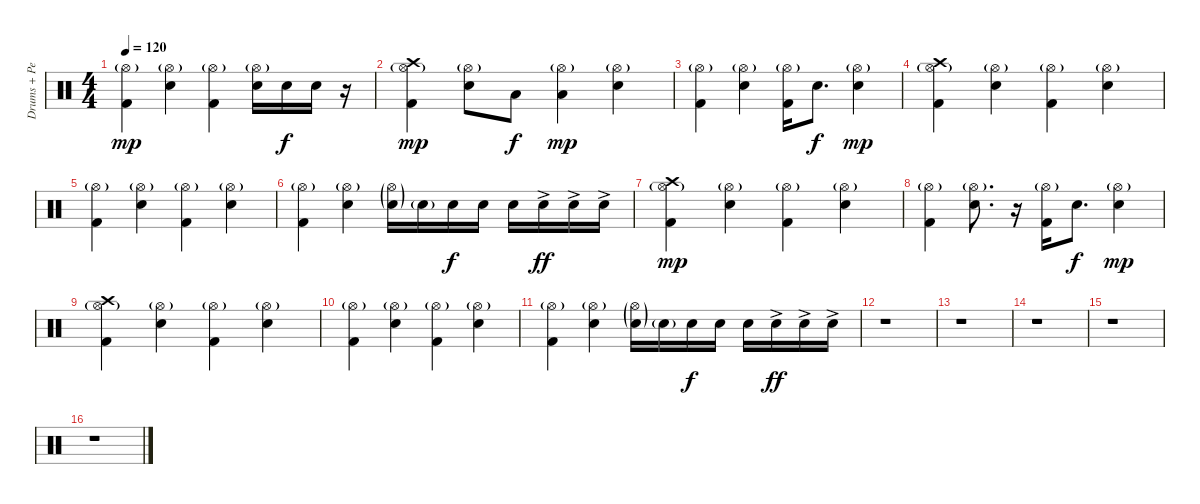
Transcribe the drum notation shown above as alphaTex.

\track ("Drums + Percussion" "Drums + Pe") {instrument percussion}
\staff {score}
\articulation defaults
\ts (4 4)
\tempo 120
\clef neutral
\ks c
("Hi-Hat (open)"{g} "Kick (hit) 2").4{dy mp} ("Hi-Hat (open)"{g} "Electric Snare (hit)").4 ("Hi-Hat (open)"{g} "Kick (hit) 2").4 ("Hi-Hat (open)"{g} "Electric Snare (hit)").16 "Electric Snare (hit)".16{dy f} "Electric Snare (hit)".16 r.16 |
("Hi-Hat (open)"{g} "Crash high (hit)" "Kick (hit) 2").4{dy mp} ("Hi-Hat (open)"{g} "Electric Snare (hit)").8 "Low Tom (hit)".8{dy f} ("Hi-Hat (open)"{g} "Low Tom (hit)").4{dy mp} ("Hi-Hat (open)"{g} "Electric Snare (hit)").4 |
("Hi-Hat (open)"{g} "Kick (hit) 2").4 ("Hi-Hat (open)"{g} "Electric Snare (hit)").4 ("Hi-Hat (open)"{g} "Kick (hit) 2").16 "Electric Snare (hit)".8{d dy f} ("Hi-Hat (open)"{g} "Electric Snare (hit)").4{dy mp} |
("Hi-Hat (open)"{g} "Crash high (hit)" "Kick (hit) 2").4 ("Hi-Hat (open)"{g} "Electric Snare (hit)").4 ("Hi-Hat (open)"{g} "Kick (hit) 2").4 ("Hi-Hat (open)"{g} "Electric Snare (hit)").4 |
("Hi-Hat (open)"{g} "Kick (hit) 2").4 ("Hi-Hat (open)"{g} "Electric Snare (hit)").4 ("Hi-Hat (open)"{g} "Kick (hit) 2").4 ("Hi-Hat (open)"{g} "Electric Snare (hit)").4 |
("Hi-Hat (open)"{g} "Kick (hit) 2").4 ("Hi-Hat (open)"{g} "Electric Snare (hit)").4 ("Hi-Hat (open)"{g} "Electric Snare (hit)"{g}).16 "Electric Snare (hit)"{g}.16 "Electric Snare (hit)".16{dy f} "Electric Snare (hit)".16 "Electric Snare (hit)".16 "Electric Snare (hit)"{ac}.16{dy ff} "Electric Snare (hit)"{ac}.16 "Electric Snare (hit)"{ac}.16 |
("Hi-Hat (open)"{g} "Crash high (hit)" "Kick (hit) 2").4{dy mp} ("Hi-Hat (open)"{g} "Electric Snare (hit)").4 ("Hi-Hat (open)"{g} "Kick (hit) 2").4 ("Hi-Hat (open)"{g} "Electric Snare (hit)").4 |
("Hi-Hat (open)"{g} "Kick (hit) 2").4 ("Hi-Hat (open)"{g} "Electric Snare (hit)").8{d} r.16 ("Hi-Hat (open)"{g} "Kick (hit) 2").16 "Electric Snare (hit)".8{d dy f} ("Hi-Hat (open)"{g} "Electric Snare (hit)").4{dy mp} |
("Hi-Hat (open)"{g} "Crash high (hit)" "Kick (hit) 2").4 ("Hi-Hat (open)"{g} "Electric Snare (hit)").4 ("Hi-Hat (open)"{g} "Kick (hit) 2").4 ("Hi-Hat (open)"{g} "Electric Snare (hit)").4 |
("Hi-Hat (open)"{g} "Kick (hit) 2").4 ("Hi-Hat (open)"{g} "Electric Snare (hit)").4 ("Hi-Hat (open)"{g} "Kick (hit) 2").4 ("Hi-Hat (open)"{g} "Electric Snare (hit)").4 |
("Hi-Hat (open)"{g} "Kick (hit) 2").4 ("Hi-Hat (open)"{g} "Electric Snare (hit)").4 ("Hi-Hat (open)"{g} "Electric Snare (hit)"{g}).16 "Electric Snare (hit)"{g}.16 "Electric Snare (hit)".16{dy f} "Electric Snare (hit)".16 "Electric Snare (hit)".16 "Electric Snare (hit)"{ac}.16{dy ff} "Electric Snare (hit)"{ac}.16 "Electric Snare (hit)"{ac}.16 |
r.1 |
r.1 |
r.1 |
r.1 |
r.1
